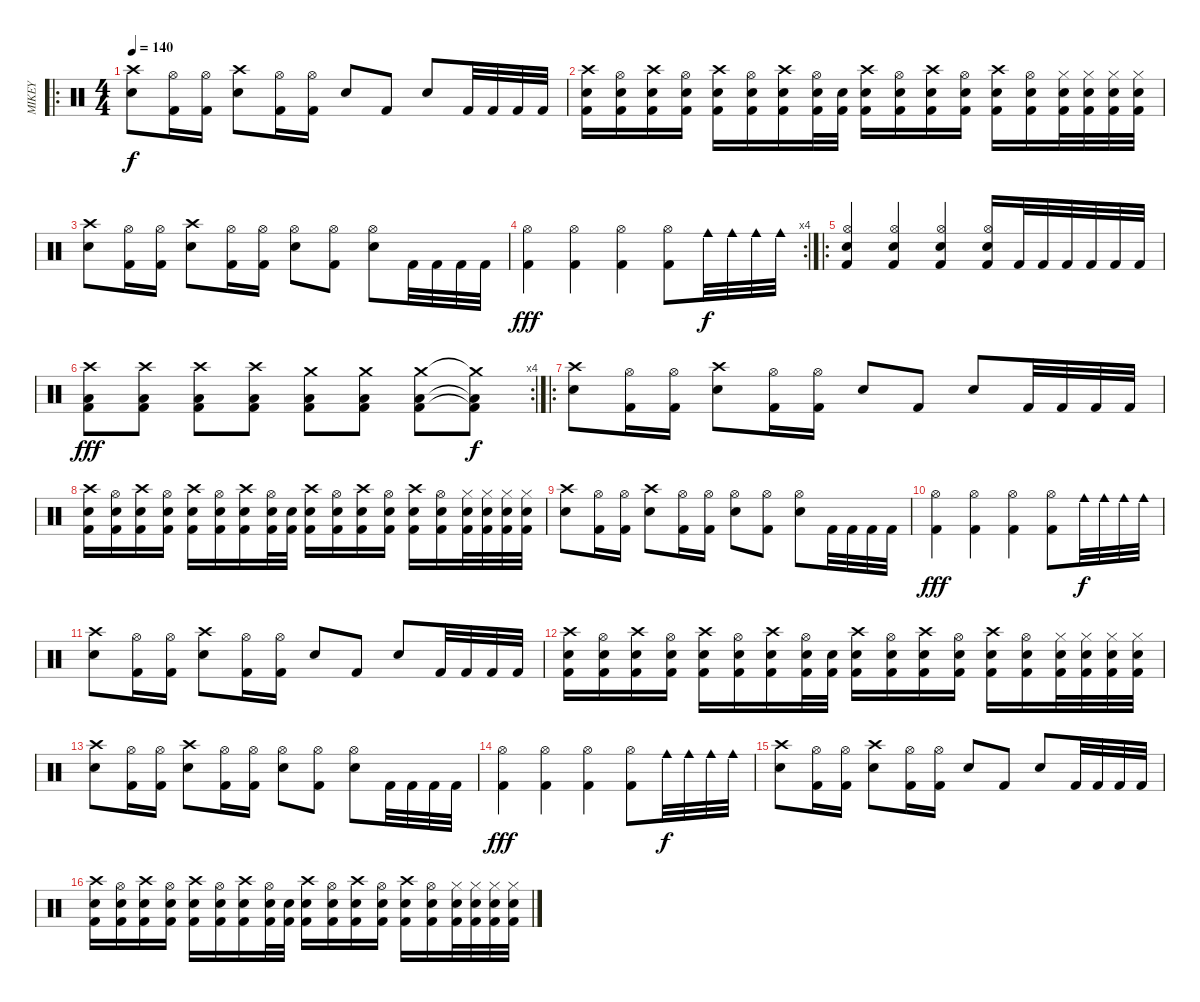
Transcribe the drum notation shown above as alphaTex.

\track ("MIKEY" "MIKEY") {instrument percussion}
\staff {score}
\articulation defaults
\ro
\ts (4 4)
\tempo 140
\clef neutral
\ks c
("Crash high (hit)" "Electric Snare (hit)").8{dy f} ("Hi-Hat (open)" "Kick (hit) 2").16 ("Hi-Hat (open)" "Kick (hit) 2").16 ("Crash high (hit)" "Electric Snare (hit)").8 ("Hi-Hat (open)" "Kick (hit) 2").16 ("Hi-Hat (open)" "Kick (hit) 2").16 "Electric Snare (hit)".8 "Kick (hit) 2".8 "Electric Snare (hit)".8 "Kick (hit) 2".32 "Kick (hit) 2".32 "Kick (hit) 2".32 "Kick (hit) 2".32 |
("Crash high (hit)" "Kick (hit) 2" "Electric Snare (hit)").16 ("Hi-Hat (open)" "Kick (hit) 2" "Electric Snare (hit)").16 ("Crash high (hit)" "Kick (hit) 2" "Electric Snare (hit)").16 ("Hi-Hat (open)" "Kick (hit) 2" "Electric Snare (hit)").16 ("Crash high (hit)" "Kick (hit) 2" "Electric Snare (hit)").16 ("Hi-Hat (open)" "Kick (hit) 2" "Electric Snare (hit)").16 ("Crash high (hit)" "Kick (hit) 2" "Electric Snare (hit)").16 ("Hi-Hat (open)" "Kick (hit) 2" "Electric Snare (hit)").32 ("Kick (hit) 2" "Electric Snare (hit)").32 ("Crash high (hit)" "Kick (hit) 2" "Electric Snare (hit)").16 ("Hi-Hat (open)" "Kick (hit) 2" "Electric Snare (hit)").16 ("Crash high (hit)" "Kick (hit) 2" "Electric Snare (hit)").16 ("Hi-Hat (open)" "Kick (hit) 2" "Electric Snare (hit)").16 ("Crash high (hit)" "Kick (hit) 2" "Electric Snare (hit)").16 ("Hi-Hat (open)" "Kick (hit) 2" "Electric Snare (hit)").16 ("Hi-Hat (closed)" "Kick (hit) 2" "Electric Snare (hit)").32 ("Hi-Hat (closed)" "Kick (hit) 2" "Electric Snare (hit)").32 ("Hi-Hat (closed)" "Kick (hit) 2" "Electric Snare (hit)").32 ("Hi-Hat (closed)" "Kick (hit) 2" "Electric Snare (hit)").32 |
("Crash high (hit)" "Electric Snare (hit)").8 ("Hi-Hat (open)" "Kick (hit) 2").16 ("Hi-Hat (open)" "Kick (hit) 2").16 ("Crash high (hit)" "Electric Snare (hit)").8 ("Hi-Hat (open)" "Kick (hit) 2").16 ("Hi-Hat (open)" "Kick (hit) 2").16 ("Hi-Hat (open)" "Electric Snare (hit)").8 ("Hi-Hat (open)" "Kick (hit) 2").8 ("Hi-Hat (open)" "Electric Snare (hit)").8 "Kick (hit) 2".32 "Kick (hit) 2".32 "Kick (hit) 2".32 "Kick (hit) 2".32 |
\rc 4
("Kick (hit) 2" "Hi-Hat (open)").4{dy fff} ("Kick (hit) 2" "Hi-Hat (open)").4 ("Kick (hit) 2" "Hi-Hat (open)").4 ("Kick (hit) 2" "Hi-Hat (open)").8 "Cowbell medium (hit)".32{dy f} "Cowbell medium (hit)".32 "Cowbell medium (hit)".32 "Cowbell medium (hit)".32 |
\ro
("Hi-Hat (open)" "Electric Snare (hit)" "Kick (hit) 2").4 ("Hi-Hat (open)" "Electric Snare (hit)" "Kick (hit) 2").4 ("Hi-Hat (open)" "Electric Snare (hit)" "Kick (hit) 2").4 ("Hi-Hat (open)" "Electric Snare (hit)" "Kick (hit) 2").16 "Kick (hit) 2".32 "Kick (hit) 2".32 "Kick (hit) 2".32 "Kick (hit) 2".32 "Kick (hit) 2".32 "Kick (hit) 2".32 |
\rc 4
("Crash high (hit)" "Low Floor Tom (hit)" "Kick (hit) 2").8{dy fff} ("Crash high (hit)" "Low Floor Tom (hit)" "Kick (hit) 2").8 ("Crash high (hit)" "Low Floor Tom (hit)" "Kick (hit) 2").8 ("Crash high (hit)" "Low Floor Tom (hit)" "Kick (hit) 2").8 ("Crash medium (hit)" "Low Floor Tom (hit)" "Kick (hit) 2").8 ("Crash medium (hit)" "Low Floor Tom (hit)" "Kick (hit) 2").8 ("Crash medium (hit)" "Low Floor Tom (hit)" "Kick (hit) 2").8 ("Crash medium (hit)"{t} "Low Floor Tom (hit)"{t} "Kick (hit) 2"{t}).8{dy f} |
\ro
("Crash high (hit)" "Electric Snare (hit)").8 ("Hi-Hat (open)" "Kick (hit) 2").16 ("Hi-Hat (open)" "Kick (hit) 2").16 ("Crash high (hit)" "Electric Snare (hit)").8 ("Hi-Hat (open)" "Kick (hit) 2").16 ("Hi-Hat (open)" "Kick (hit) 2").16 "Electric Snare (hit)".8 "Kick (hit) 2".8 "Electric Snare (hit)".8 "Kick (hit) 2".32 "Kick (hit) 2".32 "Kick (hit) 2".32 "Kick (hit) 2".32 |
("Crash high (hit)" "Kick (hit) 2" "Electric Snare (hit)").16 ("Hi-Hat (open)" "Kick (hit) 2" "Electric Snare (hit)").16 ("Crash high (hit)" "Kick (hit) 2" "Electric Snare (hit)").16 ("Hi-Hat (open)" "Kick (hit) 2" "Electric Snare (hit)").16 ("Crash high (hit)" "Kick (hit) 2" "Electric Snare (hit)").16 ("Hi-Hat (open)" "Kick (hit) 2" "Electric Snare (hit)").16 ("Crash high (hit)" "Kick (hit) 2" "Electric Snare (hit)").16 ("Hi-Hat (open)" "Kick (hit) 2" "Electric Snare (hit)").32 ("Kick (hit) 2" "Electric Snare (hit)").32 ("Crash high (hit)" "Kick (hit) 2" "Electric Snare (hit)").16 ("Hi-Hat (open)" "Kick (hit) 2" "Electric Snare (hit)").16 ("Crash high (hit)" "Kick (hit) 2" "Electric Snare (hit)").16 ("Hi-Hat (open)" "Kick (hit) 2" "Electric Snare (hit)").16 ("Crash high (hit)" "Kick (hit) 2" "Electric Snare (hit)").16 ("Hi-Hat (open)" "Kick (hit) 2" "Electric Snare (hit)").16 ("Hi-Hat (closed)" "Kick (hit) 2" "Electric Snare (hit)").32 ("Hi-Hat (closed)" "Kick (hit) 2" "Electric Snare (hit)").32 ("Hi-Hat (closed)" "Kick (hit) 2" "Electric Snare (hit)").32 ("Hi-Hat (closed)" "Kick (hit) 2" "Electric Snare (hit)").32 |
("Crash high (hit)" "Electric Snare (hit)").8 ("Hi-Hat (open)" "Kick (hit) 2").16 ("Hi-Hat (open)" "Kick (hit) 2").16 ("Crash high (hit)" "Electric Snare (hit)").8 ("Hi-Hat (open)" "Kick (hit) 2").16 ("Hi-Hat (open)" "Kick (hit) 2").16 ("Hi-Hat (open)" "Electric Snare (hit)").8 ("Hi-Hat (open)" "Kick (hit) 2").8 ("Hi-Hat (open)" "Electric Snare (hit)").8 "Kick (hit) 2".32 "Kick (hit) 2".32 "Kick (hit) 2".32 "Kick (hit) 2".32 |
("Kick (hit) 2" "Hi-Hat (open)").4{dy fff} ("Kick (hit) 2" "Hi-Hat (open)").4 ("Kick (hit) 2" "Hi-Hat (open)").4 ("Kick (hit) 2" "Hi-Hat (open)").8 "Cowbell medium (hit)".32{dy f} "Cowbell medium (hit)".32 "Cowbell medium (hit)".32 "Cowbell medium (hit)".32 |
("Crash high (hit)" "Electric Snare (hit)").8 ("Hi-Hat (open)" "Kick (hit) 2").16 ("Hi-Hat (open)" "Kick (hit) 2").16 ("Crash high (hit)" "Electric Snare (hit)").8 ("Hi-Hat (open)" "Kick (hit) 2").16 ("Hi-Hat (open)" "Kick (hit) 2").16 "Electric Snare (hit)".8 "Kick (hit) 2".8 "Electric Snare (hit)".8 "Kick (hit) 2".32 "Kick (hit) 2".32 "Kick (hit) 2".32 "Kick (hit) 2".32 |
("Crash high (hit)" "Kick (hit) 2" "Electric Snare (hit)").16 ("Hi-Hat (open)" "Kick (hit) 2" "Electric Snare (hit)").16 ("Crash high (hit)" "Kick (hit) 2" "Electric Snare (hit)").16 ("Hi-Hat (open)" "Kick (hit) 2" "Electric Snare (hit)").16 ("Crash high (hit)" "Kick (hit) 2" "Electric Snare (hit)").16 ("Hi-Hat (open)" "Kick (hit) 2" "Electric Snare (hit)").16 ("Crash high (hit)" "Kick (hit) 2" "Electric Snare (hit)").16 ("Hi-Hat (open)" "Kick (hit) 2" "Electric Snare (hit)").32 ("Kick (hit) 2" "Electric Snare (hit)").32 ("Crash high (hit)" "Kick (hit) 2" "Electric Snare (hit)").16 ("Hi-Hat (open)" "Kick (hit) 2" "Electric Snare (hit)").16 ("Crash high (hit)" "Kick (hit) 2" "Electric Snare (hit)").16 ("Hi-Hat (open)" "Kick (hit) 2" "Electric Snare (hit)").16 ("Crash high (hit)" "Kick (hit) 2" "Electric Snare (hit)").16 ("Hi-Hat (open)" "Kick (hit) 2" "Electric Snare (hit)").16 ("Hi-Hat (closed)" "Kick (hit) 2" "Electric Snare (hit)").32 ("Hi-Hat (closed)" "Kick (hit) 2" "Electric Snare (hit)").32 ("Hi-Hat (closed)" "Kick (hit) 2" "Electric Snare (hit)").32 ("Hi-Hat (closed)" "Kick (hit) 2" "Electric Snare (hit)").32 |
("Crash high (hit)" "Electric Snare (hit)").8 ("Hi-Hat (open)" "Kick (hit) 2").16 ("Hi-Hat (open)" "Kick (hit) 2").16 ("Crash high (hit)" "Electric Snare (hit)").8 ("Hi-Hat (open)" "Kick (hit) 2").16 ("Hi-Hat (open)" "Kick (hit) 2").16 ("Hi-Hat (open)" "Electric Snare (hit)").8 ("Hi-Hat (open)" "Kick (hit) 2").8 ("Hi-Hat (open)" "Electric Snare (hit)").8 "Kick (hit) 2".32 "Kick (hit) 2".32 "Kick (hit) 2".32 "Kick (hit) 2".32 |
("Kick (hit) 2" "Hi-Hat (open)").4{dy fff} ("Kick (hit) 2" "Hi-Hat (open)").4 ("Kick (hit) 2" "Hi-Hat (open)").4 ("Kick (hit) 2" "Hi-Hat (open)").8 "Cowbell medium (hit)".32{dy f} "Cowbell medium (hit)".32 "Cowbell medium (hit)".32 "Cowbell medium (hit)".32 |
("Crash high (hit)" "Electric Snare (hit)").8 ("Hi-Hat (open)" "Kick (hit) 2").16 ("Hi-Hat (open)" "Kick (hit) 2").16 ("Crash high (hit)" "Electric Snare (hit)").8 ("Hi-Hat (open)" "Kick (hit) 2").16 ("Hi-Hat (open)" "Kick (hit) 2").16 "Electric Snare (hit)".8 "Kick (hit) 2".8 "Electric Snare (hit)".8 "Kick (hit) 2".32 "Kick (hit) 2".32 "Kick (hit) 2".32 "Kick (hit) 2".32 |
("Crash high (hit)" "Kick (hit) 2" "Electric Snare (hit)").16 ("Hi-Hat (open)" "Kick (hit) 2" "Electric Snare (hit)").16 ("Crash high (hit)" "Kick (hit) 2" "Electric Snare (hit)").16 ("Hi-Hat (open)" "Kick (hit) 2" "Electric Snare (hit)").16 ("Crash high (hit)" "Kick (hit) 2" "Electric Snare (hit)").16 ("Hi-Hat (open)" "Kick (hit) 2" "Electric Snare (hit)").16 ("Crash high (hit)" "Kick (hit) 2" "Electric Snare (hit)").16 ("Hi-Hat (open)" "Kick (hit) 2" "Electric Snare (hit)").32 ("Kick (hit) 2" "Electric Snare (hit)").32 ("Crash high (hit)" "Kick (hit) 2" "Electric Snare (hit)").16 ("Hi-Hat (open)" "Kick (hit) 2" "Electric Snare (hit)").16 ("Crash high (hit)" "Kick (hit) 2" "Electric Snare (hit)").16 ("Hi-Hat (open)" "Kick (hit) 2" "Electric Snare (hit)").16 ("Crash high (hit)" "Kick (hit) 2" "Electric Snare (hit)").16 ("Hi-Hat (open)" "Kick (hit) 2" "Electric Snare (hit)").16 ("Hi-Hat (closed)" "Kick (hit) 2" "Electric Snare (hit)").32 ("Hi-Hat (closed)" "Kick (hit) 2" "Electric Snare (hit)").32 ("Hi-Hat (closed)" "Kick (hit) 2" "Electric Snare (hit)").32 ("Hi-Hat (closed)" "Kick (hit) 2" "Electric Snare (hit)").32
